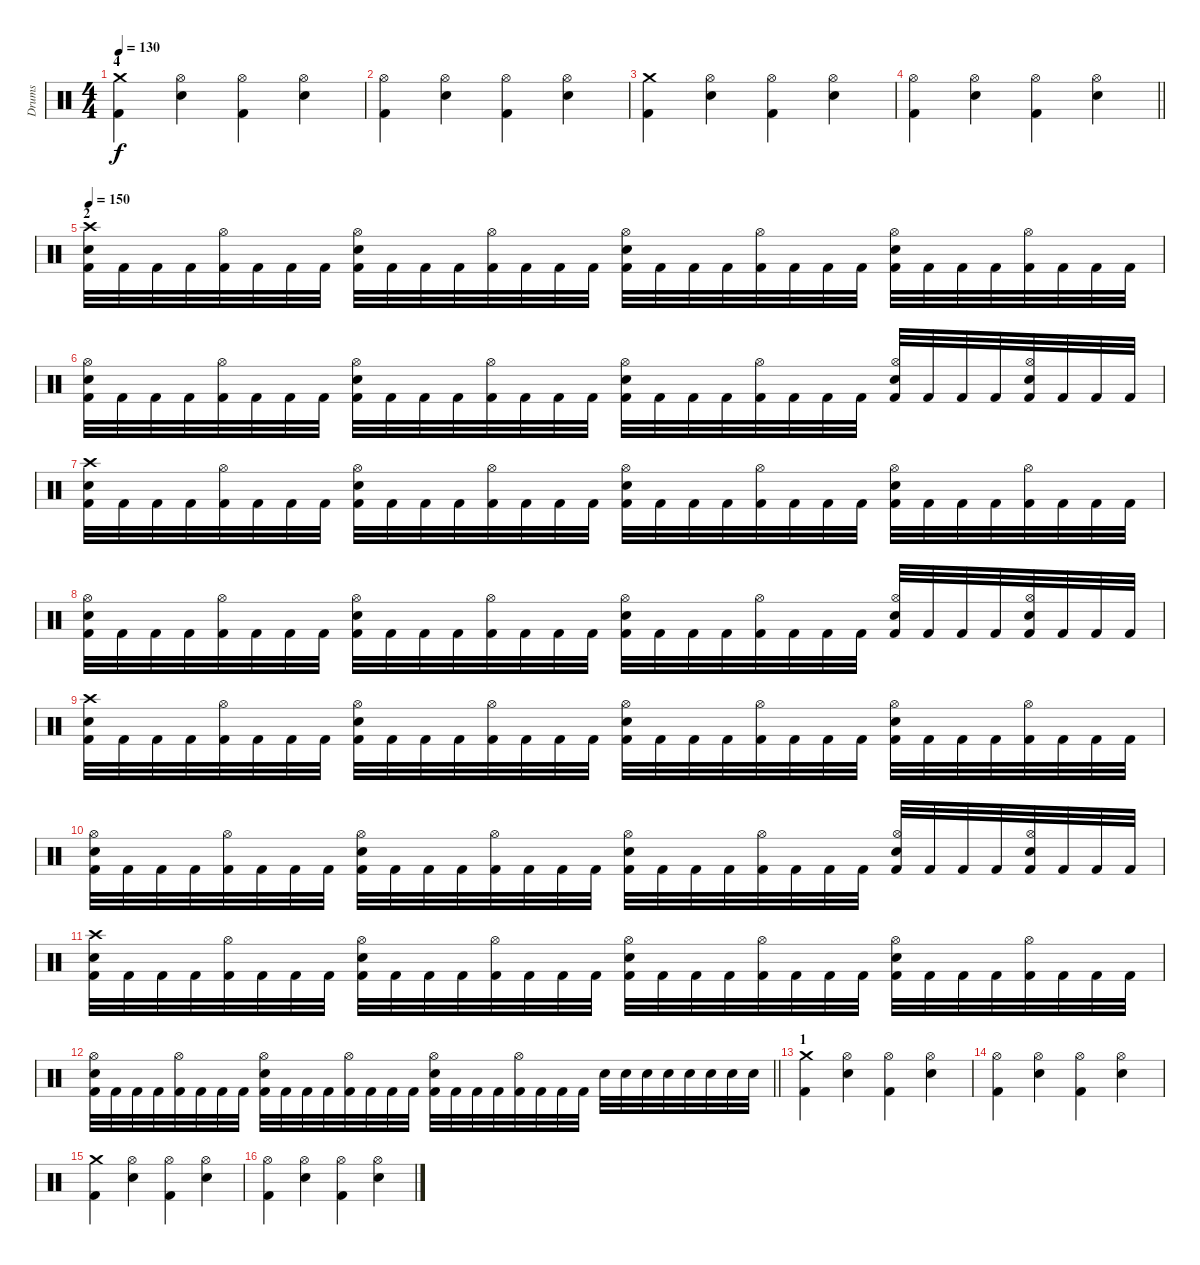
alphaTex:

\track ("Drums" "Drums") {instrument percussion}
\staff {score}
\articulation defaults
\ts (4 4)
\section ("" "4")
\tempo 130
\clef neutral
\ks c
("Crash medium (hit)" "Kick (hit) 2").4{dy f} ("Hi-Hat (open)" "Snare (hit) 2").4 ("Hi-Hat (open)" "Kick (hit) 2").4 ("Hi-Hat (open)" "Snare (hit) 2").4 |
("Hi-Hat (open)" "Kick (hit) 2").4 ("Hi-Hat (open)" "Snare (hit) 2").4 ("Hi-Hat (open)" "Kick (hit) 2").4 ("Hi-Hat (open)" "Snare (hit) 2").4 |
("Crash medium (hit)" "Kick (hit) 2").4 ("Hi-Hat (open)" "Snare (hit) 2").4 ("Hi-Hat (open)" "Kick (hit) 2").4 ("Hi-Hat (open)" "Snare (hit) 2").4 |
\barLineRight lightlight
("Hi-Hat (open)" "Kick (hit) 2").4 ("Hi-Hat (open)" "Snare (hit) 2").4 ("Hi-Hat (open)" "Kick (hit) 2").4 ("Hi-Hat (open)" "Snare (hit) 2").4 |
\section ("" "2")
\tempo 150
("Crash high (hit)" "Snare (hit) 2" "Kick (hit) 2").32 "Kick (hit) 2".32 "Kick (hit) 2".32 "Kick (hit) 2".32 ("Hi-Hat (open)" "Kick (hit) 2").32 "Kick (hit) 2".32 "Kick (hit) 2".32 "Kick (hit) 2".32 ("Hi-Hat (open)" "Snare (hit) 2" "Kick (hit) 2").32 "Kick (hit) 2".32 "Kick (hit) 2".32 "Kick (hit) 2".32 ("Hi-Hat (open)" "Kick (hit) 2").32 "Kick (hit) 2".32 "Kick (hit) 2".32 "Kick (hit) 2".32 ("Hi-Hat (open)" "Snare (hit) 2" "Kick (hit) 2").32 "Kick (hit) 2".32 "Kick (hit) 2".32 "Kick (hit) 2".32 ("Hi-Hat (open)" "Kick (hit) 2").32 "Kick (hit) 2".32 "Kick (hit) 2".32 "Kick (hit) 2".32 ("Hi-Hat (open)" "Snare (hit) 2" "Kick (hit) 2").32 "Kick (hit) 2".32 "Kick (hit) 2".32 "Kick (hit) 2".32 ("Hi-Hat (open)" "Kick (hit) 2").32 "Kick (hit) 2".32 "Kick (hit) 2".32 "Kick (hit) 2".32 |
("Hi-Hat (open)" "Snare (hit) 2" "Kick (hit) 2").32 "Kick (hit) 2".32 "Kick (hit) 2".32 "Kick (hit) 2".32 ("Hi-Hat (open)" "Kick (hit) 2").32 "Kick (hit) 2".32 "Kick (hit) 2".32 "Kick (hit) 2".32 ("Hi-Hat (open)" "Snare (hit) 2" "Kick (hit) 2").32 "Kick (hit) 2".32 "Kick (hit) 2".32 "Kick (hit) 2".32 ("Hi-Hat (open)" "Kick (hit) 2").32 "Kick (hit) 2".32 "Kick (hit) 2".32 "Kick (hit) 2".32 ("Hi-Hat (open)" "Snare (hit) 2" "Kick (hit) 2").32 "Kick (hit) 2".32 "Kick (hit) 2".32 "Kick (hit) 2".32 ("Hi-Hat (open)" "Kick (hit) 2").32 "Kick (hit) 2".32 "Kick (hit) 2".32 "Kick (hit) 2".32 ("Hi-Hat (open)" "Snare (hit) 2" "Kick (hit) 2").32 "Kick (hit) 2".32 "Kick (hit) 2".32 "Kick (hit) 2".32 ("Hi-Hat (open)" "Snare (hit) 2" "Kick (hit) 2").32 "Kick (hit) 2".32 "Kick (hit) 2".32 "Kick (hit) 2".32 |
("Crash high (hit)" "Snare (hit) 2" "Kick (hit) 2").32 "Kick (hit) 2".32 "Kick (hit) 2".32 "Kick (hit) 2".32 ("Hi-Hat (open)" "Kick (hit) 2").32 "Kick (hit) 2".32 "Kick (hit) 2".32 "Kick (hit) 2".32 ("Hi-Hat (open)" "Snare (hit) 2" "Kick (hit) 2").32 "Kick (hit) 2".32 "Kick (hit) 2".32 "Kick (hit) 2".32 ("Hi-Hat (open)" "Kick (hit) 2").32 "Kick (hit) 2".32 "Kick (hit) 2".32 "Kick (hit) 2".32 ("Hi-Hat (open)" "Snare (hit) 2" "Kick (hit) 2").32 "Kick (hit) 2".32 "Kick (hit) 2".32 "Kick (hit) 2".32 ("Hi-Hat (open)" "Kick (hit) 2").32 "Kick (hit) 2".32 "Kick (hit) 2".32 "Kick (hit) 2".32 ("Hi-Hat (open)" "Snare (hit) 2" "Kick (hit) 2").32 "Kick (hit) 2".32 "Kick (hit) 2".32 "Kick (hit) 2".32 ("Hi-Hat (open)" "Kick (hit) 2").32 "Kick (hit) 2".32 "Kick (hit) 2".32 "Kick (hit) 2".32 |
("Hi-Hat (open)" "Snare (hit) 2" "Kick (hit) 2").32 "Kick (hit) 2".32 "Kick (hit) 2".32 "Kick (hit) 2".32 ("Hi-Hat (open)" "Kick (hit) 2").32 "Kick (hit) 2".32 "Kick (hit) 2".32 "Kick (hit) 2".32 ("Hi-Hat (open)" "Snare (hit) 2" "Kick (hit) 2").32 "Kick (hit) 2".32 "Kick (hit) 2".32 "Kick (hit) 2".32 ("Hi-Hat (open)" "Kick (hit) 2").32 "Kick (hit) 2".32 "Kick (hit) 2".32 "Kick (hit) 2".32 ("Hi-Hat (open)" "Snare (hit) 2" "Kick (hit) 2").32 "Kick (hit) 2".32 "Kick (hit) 2".32 "Kick (hit) 2".32 ("Hi-Hat (open)" "Kick (hit) 2").32 "Kick (hit) 2".32 "Kick (hit) 2".32 "Kick (hit) 2".32 ("Hi-Hat (open)" "Snare (hit) 2" "Kick (hit) 2").32 "Kick (hit) 2".32 "Kick (hit) 2".32 "Kick (hit) 2".32 ("Hi-Hat (open)" "Snare (hit) 2" "Kick (hit) 2").32 "Kick (hit) 2".32 "Kick (hit) 2".32 "Kick (hit) 2".32 |
("Crash high (hit)" "Snare (hit) 2" "Kick (hit) 2").32 "Kick (hit) 2".32 "Kick (hit) 2".32 "Kick (hit) 2".32 ("Hi-Hat (open)" "Kick (hit) 2").32 "Kick (hit) 2".32 "Kick (hit) 2".32 "Kick (hit) 2".32 ("Hi-Hat (open)" "Snare (hit) 2" "Kick (hit) 2").32 "Kick (hit) 2".32 "Kick (hit) 2".32 "Kick (hit) 2".32 ("Hi-Hat (open)" "Kick (hit) 2").32 "Kick (hit) 2".32 "Kick (hit) 2".32 "Kick (hit) 2".32 ("Hi-Hat (open)" "Snare (hit) 2" "Kick (hit) 2").32 "Kick (hit) 2".32 "Kick (hit) 2".32 "Kick (hit) 2".32 ("Hi-Hat (open)" "Kick (hit) 2").32 "Kick (hit) 2".32 "Kick (hit) 2".32 "Kick (hit) 2".32 ("Hi-Hat (open)" "Snare (hit) 2" "Kick (hit) 2").32 "Kick (hit) 2".32 "Kick (hit) 2".32 "Kick (hit) 2".32 ("Hi-Hat (open)" "Kick (hit) 2").32 "Kick (hit) 2".32 "Kick (hit) 2".32 "Kick (hit) 2".32 |
("Hi-Hat (open)" "Snare (hit) 2" "Kick (hit) 2").32 "Kick (hit) 2".32 "Kick (hit) 2".32 "Kick (hit) 2".32 ("Hi-Hat (open)" "Kick (hit) 2").32 "Kick (hit) 2".32 "Kick (hit) 2".32 "Kick (hit) 2".32 ("Hi-Hat (open)" "Snare (hit) 2" "Kick (hit) 2").32 "Kick (hit) 2".32 "Kick (hit) 2".32 "Kick (hit) 2".32 ("Hi-Hat (open)" "Kick (hit) 2").32 "Kick (hit) 2".32 "Kick (hit) 2".32 "Kick (hit) 2".32 ("Hi-Hat (open)" "Snare (hit) 2" "Kick (hit) 2").32 "Kick (hit) 2".32 "Kick (hit) 2".32 "Kick (hit) 2".32 ("Hi-Hat (open)" "Kick (hit) 2").32 "Kick (hit) 2".32 "Kick (hit) 2".32 "Kick (hit) 2".32 ("Hi-Hat (open)" "Snare (hit) 2" "Kick (hit) 2").32 "Kick (hit) 2".32 "Kick (hit) 2".32 "Kick (hit) 2".32 ("Hi-Hat (open)" "Snare (hit) 2" "Kick (hit) 2").32 "Kick (hit) 2".32 "Kick (hit) 2".32 "Kick (hit) 2".32 |
("Crash high (hit)" "Snare (hit) 2" "Kick (hit) 2").32 "Kick (hit) 2".32 "Kick (hit) 2".32 "Kick (hit) 2".32 ("Hi-Hat (open)" "Kick (hit) 2").32 "Kick (hit) 2".32 "Kick (hit) 2".32 "Kick (hit) 2".32 ("Hi-Hat (open)" "Snare (hit) 2" "Kick (hit) 2").32 "Kick (hit) 2".32 "Kick (hit) 2".32 "Kick (hit) 2".32 ("Hi-Hat (open)" "Kick (hit) 2").32 "Kick (hit) 2".32 "Kick (hit) 2".32 "Kick (hit) 2".32 ("Hi-Hat (open)" "Snare (hit) 2" "Kick (hit) 2").32 "Kick (hit) 2".32 "Kick (hit) 2".32 "Kick (hit) 2".32 ("Hi-Hat (open)" "Kick (hit) 2").32 "Kick (hit) 2".32 "Kick (hit) 2".32 "Kick (hit) 2".32 ("Hi-Hat (open)" "Snare (hit) 2" "Kick (hit) 2").32 "Kick (hit) 2".32 "Kick (hit) 2".32 "Kick (hit) 2".32 ("Hi-Hat (open)" "Kick (hit) 2").32 "Kick (hit) 2".32 "Kick (hit) 2".32 "Kick (hit) 2".32 |
\barLineRight lightlight
("Hi-Hat (open)" "Snare (hit) 2" "Kick (hit) 2").32 "Kick (hit) 2".32 "Kick (hit) 2".32 "Kick (hit) 2".32 ("Hi-Hat (open)" "Kick (hit) 2").32 "Kick (hit) 2".32 "Kick (hit) 2".32 "Kick (hit) 2".32 ("Hi-Hat (open)" "Snare (hit) 2" "Kick (hit) 2").32 "Kick (hit) 2".32 "Kick (hit) 2".32 "Kick (hit) 2".32 ("Hi-Hat (open)" "Kick (hit) 2").32 "Kick (hit) 2".32 "Kick (hit) 2".32 "Kick (hit) 2".32 ("Hi-Hat (open)" "Snare (hit) 2" "Kick (hit) 2").32 "Kick (hit) 2".32 "Kick (hit) 2".32 "Kick (hit) 2".32 ("Hi-Hat (open)" "Kick (hit) 2").32 "Kick (hit) 2".32 "Kick (hit) 2".32 "Kick (hit) 2".32 "Snare (hit) 2".32 "Snare (hit) 2".32 "Snare (hit) 2".32 "Snare (hit) 2".32 "Snare (hit) 2".32 "Snare (hit) 2".32 "Snare (hit) 2".32 "Snare (hit) 2".32 |
\section ("" "1")
("Crash medium (hit)" "Kick (hit) 2").4 ("Hi-Hat (open)" "Snare (hit) 2").4 ("Hi-Hat (open)" "Kick (hit) 2").4 ("Hi-Hat (open)" "Snare (hit) 2").4 |
("Hi-Hat (open)" "Kick (hit) 2").4 ("Hi-Hat (open)" "Snare (hit) 2").4 ("Hi-Hat (open)" "Kick (hit) 2").4 ("Hi-Hat (open)" "Snare (hit) 2").4 |
("Crash medium (hit)" "Kick (hit) 2").4 ("Hi-Hat (open)" "Snare (hit) 2").4 ("Hi-Hat (open)" "Kick (hit) 2").4 ("Hi-Hat (open)" "Snare (hit) 2").4 |
("Hi-Hat (open)" "Kick (hit) 2").4 ("Hi-Hat (open)" "Snare (hit) 2").4 ("Hi-Hat (open)" "Kick (hit) 2").4 ("Hi-Hat (open)" "Snare (hit) 2").4
